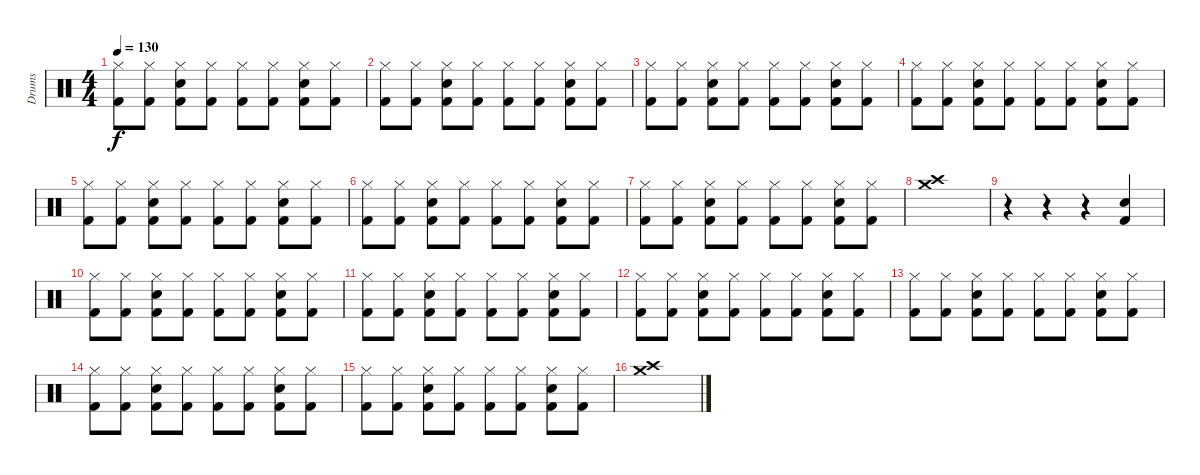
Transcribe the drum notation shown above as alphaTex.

\track ("Drums" "Drums") {instrument percussion}
\staff {score}
\articulation defaults
\ts (4 4)
\tempo 130
\clef neutral
\ks c
("Kick (hit) 2" "Hi-Hat (closed)").8{dy f} ("Kick (hit) 2" "Hi-Hat (closed)").8 ("Snare (hit) 2" "Kick (hit) 2" "Hi-Hat (closed)").8 ("Kick (hit) 2" "Hi-Hat (closed)").8 ("Kick (hit) 2" "Hi-Hat (closed)").8 ("Kick (hit) 2" "Hi-Hat (closed)").8 ("Snare (hit) 2" "Kick (hit) 2" "Hi-Hat (closed)").8 ("Kick (hit) 2" "Hi-Hat (closed)").8 |
("Kick (hit) 2" "Hi-Hat (closed)").8 ("Kick (hit) 2" "Hi-Hat (closed)").8 ("Snare (hit) 2" "Kick (hit) 2" "Hi-Hat (closed)").8 ("Kick (hit) 2" "Hi-Hat (closed)").8 ("Kick (hit) 2" "Hi-Hat (closed)").8 ("Kick (hit) 2" "Hi-Hat (closed)").8 ("Snare (hit) 2" "Kick (hit) 2" "Hi-Hat (closed)").8 ("Kick (hit) 2" "Hi-Hat (closed)").8 |
("Kick (hit) 2" "Hi-Hat (closed)").8 ("Kick (hit) 2" "Hi-Hat (closed)").8 ("Snare (hit) 2" "Kick (hit) 2" "Hi-Hat (closed)").8 ("Kick (hit) 2" "Hi-Hat (closed)").8 ("Kick (hit) 2" "Hi-Hat (closed)").8 ("Kick (hit) 2" "Hi-Hat (closed)").8 ("Snare (hit) 2" "Kick (hit) 2" "Hi-Hat (closed)").8 ("Kick (hit) 2" "Hi-Hat (closed)").8 |
("Kick (hit) 2" "Hi-Hat (closed)").8 ("Kick (hit) 2" "Hi-Hat (closed)").8 ("Snare (hit) 2" "Kick (hit) 2" "Hi-Hat (closed)").8 ("Kick (hit) 2" "Hi-Hat (closed)").8 ("Kick (hit) 2" "Hi-Hat (closed)").8 ("Kick (hit) 2" "Hi-Hat (closed)").8 ("Snare (hit) 2" "Kick (hit) 2" "Hi-Hat (closed)").8 ("Kick (hit) 2" "Hi-Hat (closed)").8 |
("Kick (hit) 2" "Hi-Hat (closed)").8 ("Kick (hit) 2" "Hi-Hat (closed)").8 ("Snare (hit) 2" "Kick (hit) 2" "Hi-Hat (closed)").8 ("Kick (hit) 2" "Hi-Hat (closed)").8 ("Kick (hit) 2" "Hi-Hat (closed)").8 ("Kick (hit) 2" "Hi-Hat (closed)").8 ("Snare (hit) 2" "Kick (hit) 2" "Hi-Hat (closed)").8 ("Kick (hit) 2" "Hi-Hat (closed)").8 |
("Kick (hit) 2" "Hi-Hat (closed)").8 ("Kick (hit) 2" "Hi-Hat (closed)").8 ("Snare (hit) 2" "Kick (hit) 2" "Hi-Hat (closed)").8 ("Kick (hit) 2" "Hi-Hat (closed)").8 ("Kick (hit) 2" "Hi-Hat (closed)").8 ("Kick (hit) 2" "Hi-Hat (closed)").8 ("Snare (hit) 2" "Kick (hit) 2" "Hi-Hat (closed)").8 ("Kick (hit) 2" "Hi-Hat (closed)").8 |
("Kick (hit) 2" "Hi-Hat (closed)").8 ("Kick (hit) 2" "Hi-Hat (closed)").8 ("Snare (hit) 2" "Kick (hit) 2" "Hi-Hat (closed)").8 ("Kick (hit) 2" "Hi-Hat (closed)").8 ("Kick (hit) 2" "Hi-Hat (closed)").8 ("Kick (hit) 2" "Hi-Hat (closed)").8 ("Snare (hit) 2" "Kick (hit) 2" "Hi-Hat (closed)").8 ("Kick (hit) 2" "Hi-Hat (closed)").8 |
("Crash high (hit)" "Crash medium (hit)").1 |
r.4 r.4 r.4 ("Electric Snare (hit)" "Kick (hit) 2").4 |
("Kick (hit) 2" "Hi-Hat (closed)").8 ("Kick (hit) 2" "Hi-Hat (closed)").8 ("Snare (hit) 2" "Kick (hit) 2" "Hi-Hat (closed)").8 ("Kick (hit) 2" "Hi-Hat (closed)").8 ("Kick (hit) 2" "Hi-Hat (closed)").8 ("Kick (hit) 2" "Hi-Hat (closed)").8 ("Snare (hit) 2" "Kick (hit) 2" "Hi-Hat (closed)").8 ("Kick (hit) 2" "Hi-Hat (closed)").8 |
("Kick (hit) 2" "Hi-Hat (closed)").8 ("Kick (hit) 2" "Hi-Hat (closed)").8 ("Snare (hit) 2" "Kick (hit) 2" "Hi-Hat (closed)").8 ("Kick (hit) 2" "Hi-Hat (closed)").8 ("Kick (hit) 2" "Hi-Hat (closed)").8 ("Kick (hit) 2" "Hi-Hat (closed)").8 ("Snare (hit) 2" "Kick (hit) 2" "Hi-Hat (closed)").8 ("Kick (hit) 2" "Hi-Hat (closed)").8 |
("Kick (hit) 2" "Hi-Hat (closed)").8 ("Kick (hit) 2" "Hi-Hat (closed)").8 ("Snare (hit) 2" "Kick (hit) 2" "Hi-Hat (closed)").8 ("Kick (hit) 2" "Hi-Hat (closed)").8 ("Kick (hit) 2" "Hi-Hat (closed)").8 ("Kick (hit) 2" "Hi-Hat (closed)").8 ("Snare (hit) 2" "Kick (hit) 2" "Hi-Hat (closed)").8 ("Kick (hit) 2" "Hi-Hat (closed)").8 |
("Kick (hit) 2" "Hi-Hat (closed)").8 ("Kick (hit) 2" "Hi-Hat (closed)").8 ("Snare (hit) 2" "Kick (hit) 2" "Hi-Hat (closed)").8 ("Kick (hit) 2" "Hi-Hat (closed)").8 ("Kick (hit) 2" "Hi-Hat (closed)").8 ("Kick (hit) 2" "Hi-Hat (closed)").8 ("Snare (hit) 2" "Kick (hit) 2" "Hi-Hat (closed)").8 ("Kick (hit) 2" "Hi-Hat (closed)").8 |
("Kick (hit) 2" "Hi-Hat (closed)").8 ("Kick (hit) 2" "Hi-Hat (closed)").8 ("Snare (hit) 2" "Kick (hit) 2" "Hi-Hat (closed)").8 ("Kick (hit) 2" "Hi-Hat (closed)").8 ("Kick (hit) 2" "Hi-Hat (closed)").8 ("Kick (hit) 2" "Hi-Hat (closed)").8 ("Snare (hit) 2" "Kick (hit) 2" "Hi-Hat (closed)").8 ("Kick (hit) 2" "Hi-Hat (closed)").8 |
("Kick (hit) 2" "Hi-Hat (closed)").8 ("Kick (hit) 2" "Hi-Hat (closed)").8 ("Snare (hit) 2" "Kick (hit) 2" "Hi-Hat (closed)").8 ("Kick (hit) 2" "Hi-Hat (closed)").8 ("Kick (hit) 2" "Hi-Hat (closed)").8 ("Kick (hit) 2" "Hi-Hat (closed)").8 ("Snare (hit) 2" "Kick (hit) 2" "Hi-Hat (closed)").8 ("Kick (hit) 2" "Hi-Hat (closed)").8 |
("Crash high (hit)" "Crash medium (hit)").1
